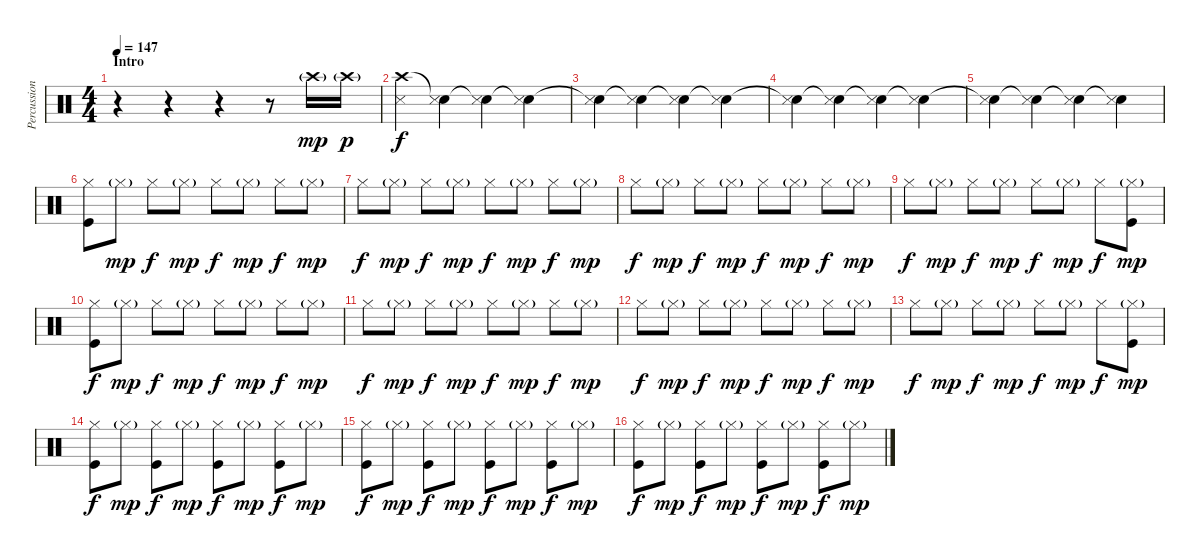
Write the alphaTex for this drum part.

\track ("Percussion" "Percussion") {instrument percussion}
\staff {score}
\articulation defaults
\ts (4 4)
\section ("" "Intro")
\tempo 147
\clef neutral
\ks c
r.4{dy mp} r.4 r.4 r.8 "Crash high (hit)"{g}.16 "Crash high (hit)"{g}.16{dy p} |
("Crash high (hit)" "Snare (side stick) 3").4{dy f} ("Snare (hit)"{t} "Snare (side stick) 3").4 ("Snare (hit)"{t} "Snare (side stick) 3").4 ("Snare (hit)"{t} "Snare (side stick) 3").4 |
("Snare (hit)"{t} "Snare (side stick) 3").4 ("Snare (hit)"{t} "Snare (side stick) 3").4 ("Snare (hit)"{t} "Snare (side stick) 3").4 ("Snare (hit)"{t} "Snare (side stick) 3").4 |
("Snare (hit)"{t} "Snare (side stick) 3").4 ("Snare (hit)"{t} "Snare (side stick) 3").4 ("Snare (hit)"{t} "Snare (side stick) 3").4 ("Snare (hit)"{t} "Snare (side stick) 3").4 |
("Snare (hit)"{t} "Snare (side stick) 3").4 ("Snare (hit)"{t} "Snare (side stick) 3").4 ("Snare (hit)"{t} "Snare (side stick) 3").4 ("Snare (hit)"{t} "Snare (side stick) 3").4 |
("Hi-Hat (closed)" "Kick (hit)").8 "Hi-Hat (closed)"{g}.8{dy mp} "Hi-Hat (closed)".8{dy f} "Hi-Hat (closed)"{g}.8{dy mp} "Hi-Hat (closed)".8{dy f} "Hi-Hat (closed)"{g}.8{dy mp} "Hi-Hat (closed)".8{dy f} "Hi-Hat (closed)"{g}.8{dy mp} |
"Hi-Hat (closed)".8{dy f} "Hi-Hat (closed)"{g}.8{dy mp} "Hi-Hat (closed)".8{dy f} "Hi-Hat (closed)"{g}.8{dy mp} "Hi-Hat (closed)".8{dy f} "Hi-Hat (closed)"{g}.8{dy mp} "Hi-Hat (closed)".8{dy f} "Hi-Hat (closed)"{g}.8{dy mp} |
"Hi-Hat (closed)".8{dy f} "Hi-Hat (closed)"{g}.8{dy mp} "Hi-Hat (closed)".8{dy f} "Hi-Hat (closed)"{g}.8{dy mp} "Hi-Hat (closed)".8{dy f} "Hi-Hat (closed)"{g}.8{dy mp} "Hi-Hat (closed)".8{dy f} "Hi-Hat (closed)"{g}.8{dy mp} |
"Hi-Hat (closed)".8{dy f} "Hi-Hat (closed)"{g}.8{dy mp} "Hi-Hat (closed)".8{dy f} "Hi-Hat (closed)"{g}.8{dy mp} "Hi-Hat (closed)".8{dy f} "Hi-Hat (closed)"{g}.8{dy mp} "Hi-Hat (closed)".8{dy f} ("Hi-Hat (closed)"{g} "Kick (hit)").8{dy mp} |
("Hi-Hat (closed)" "Kick (hit)").8{dy f} "Hi-Hat (closed)"{g}.8{dy mp} "Hi-Hat (closed)".8{dy f} "Hi-Hat (closed)"{g}.8{dy mp} "Hi-Hat (closed)".8{dy f} "Hi-Hat (closed)"{g}.8{dy mp} "Hi-Hat (closed)".8{dy f} "Hi-Hat (closed)"{g}.8{dy mp} |
"Hi-Hat (closed)".8{dy f} "Hi-Hat (closed)"{g}.8{dy mp} "Hi-Hat (closed)".8{dy f} "Hi-Hat (closed)"{g}.8{dy mp} "Hi-Hat (closed)".8{dy f} "Hi-Hat (closed)"{g}.8{dy mp} "Hi-Hat (closed)".8{dy f} "Hi-Hat (closed)"{g}.8{dy mp} |
"Hi-Hat (closed)".8{dy f} "Hi-Hat (closed)"{g}.8{dy mp} "Hi-Hat (closed)".8{dy f} "Hi-Hat (closed)"{g}.8{dy mp} "Hi-Hat (closed)".8{dy f} "Hi-Hat (closed)"{g}.8{dy mp} "Hi-Hat (closed)".8{dy f} "Hi-Hat (closed)"{g}.8{dy mp} |
"Hi-Hat (closed)".8{dy f} "Hi-Hat (closed)"{g}.8{dy mp} "Hi-Hat (closed)".8{dy f} "Hi-Hat (closed)"{g}.8{dy mp} "Hi-Hat (closed)".8{dy f} "Hi-Hat (closed)"{g}.8{dy mp} "Hi-Hat (closed)".8{dy f} ("Hi-Hat (closed)"{g} "Kick (hit)").8{dy mp} |
("Hi-Hat (closed)" "Kick (hit)").8{dy f} "Hi-Hat (closed)"{g}.8{dy mp} ("Hi-Hat (closed)" "Kick (hit)").8{dy f} "Hi-Hat (closed)"{g}.8{dy mp} ("Hi-Hat (closed)" "Kick (hit)").8{dy f} "Hi-Hat (closed)"{g}.8{dy mp} ("Hi-Hat (closed)" "Kick (hit)").8{dy f} "Hi-Hat (closed)"{g}.8{dy mp} |
("Hi-Hat (closed)" "Kick (hit)").8{dy f} "Hi-Hat (closed)"{g}.8{dy mp} ("Hi-Hat (closed)" "Kick (hit)").8{dy f} "Hi-Hat (closed)"{g}.8{dy mp} ("Hi-Hat (closed)" "Kick (hit)").8{dy f} "Hi-Hat (closed)"{g}.8{dy mp} ("Hi-Hat (closed)" "Kick (hit)").8{dy f} "Hi-Hat (closed)"{g}.8{dy mp} |
("Hi-Hat (closed)" "Kick (hit)").8{dy f} "Hi-Hat (closed)"{g}.8{dy mp} ("Hi-Hat (closed)" "Kick (hit)").8{dy f} "Hi-Hat (closed)"{g}.8{dy mp} ("Hi-Hat (closed)" "Kick (hit)").8{dy f} "Hi-Hat (closed)"{g}.8{dy mp} ("Hi-Hat (closed)" "Kick (hit)").8{dy f} "Hi-Hat (closed)"{g}.8{dy mp}
